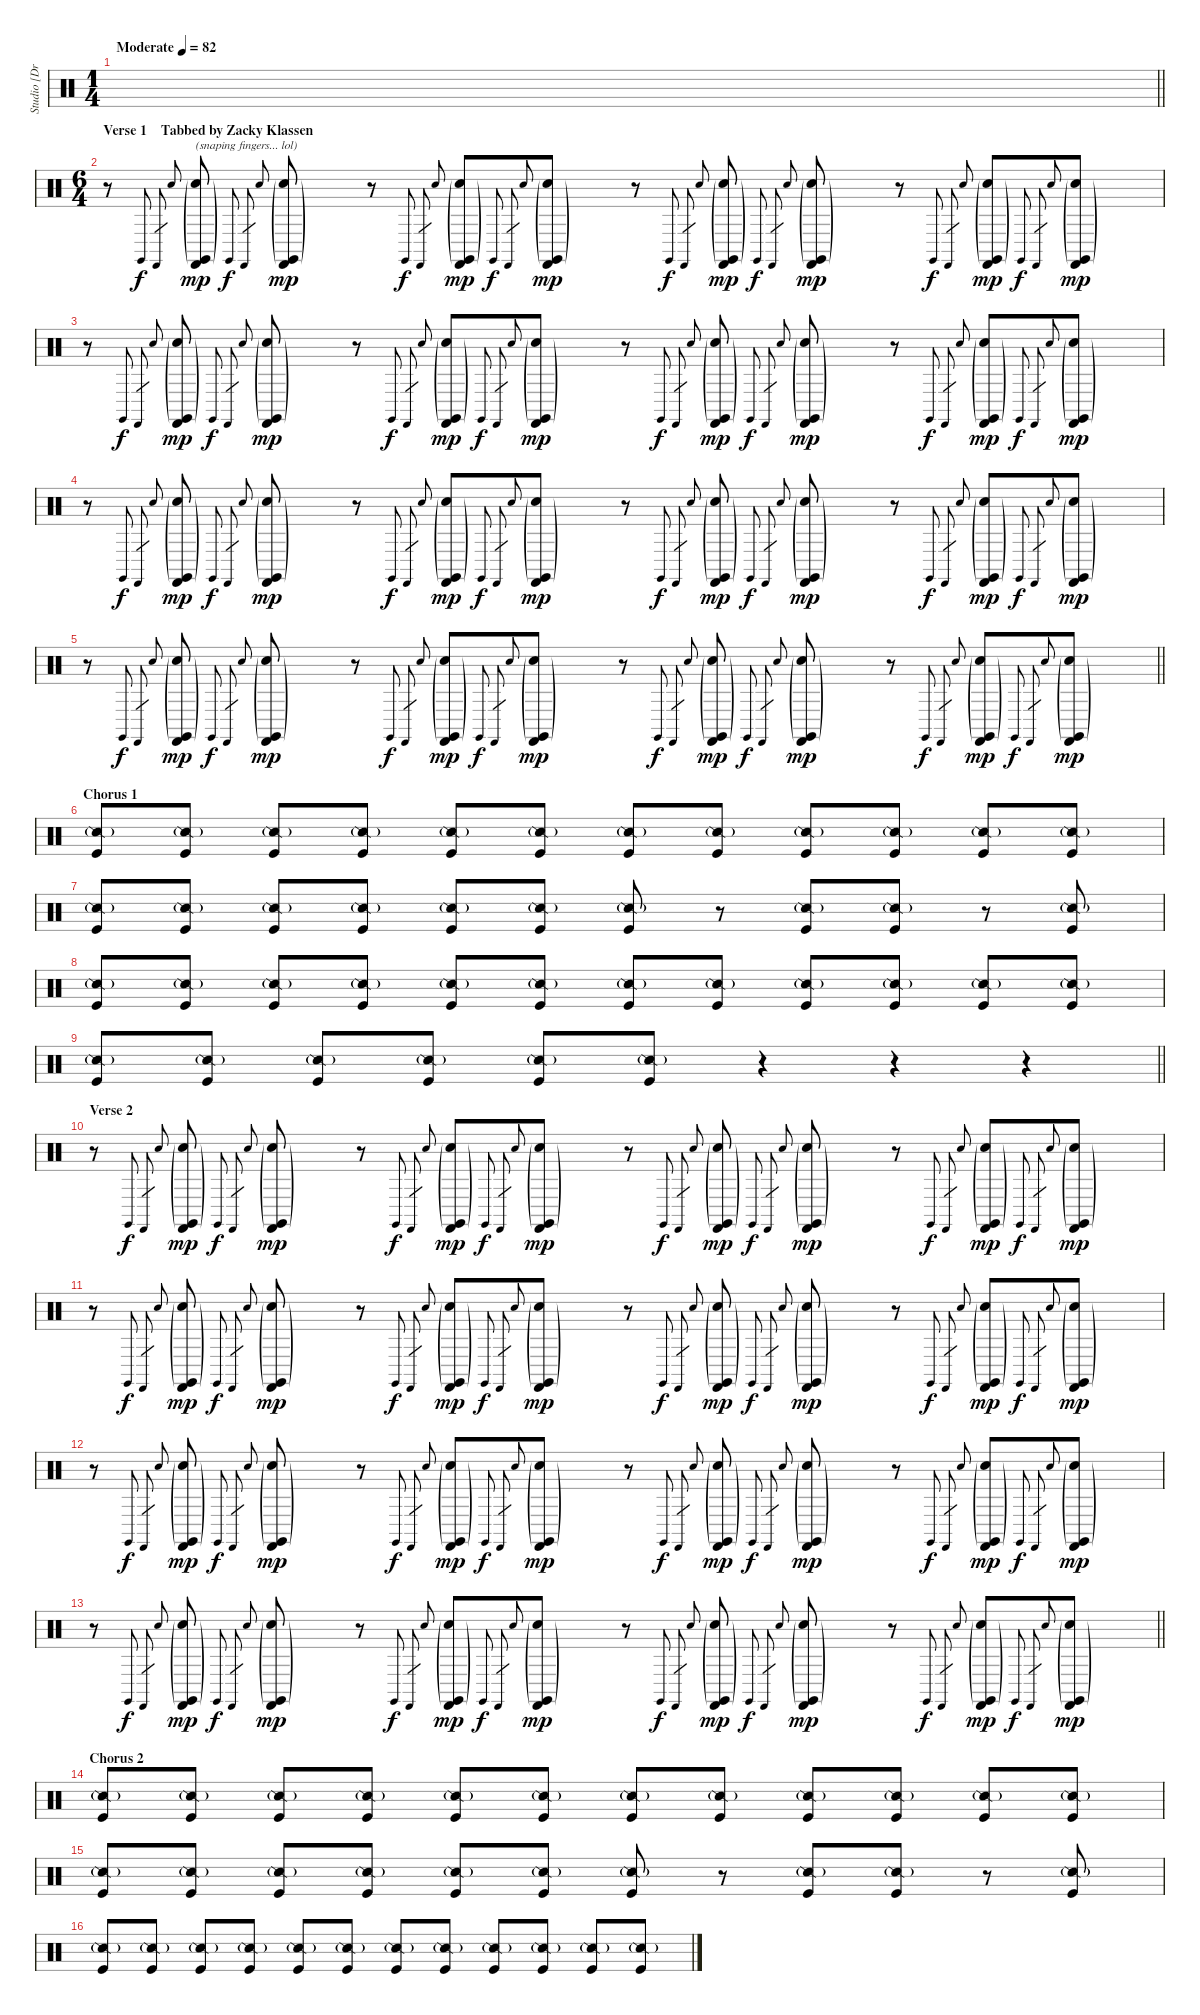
\track ("Studio [Drums FX]" "Studio [Dr") {instrument percussion}
\staff {score}
\articulation defaults
\ts (1 4)
\tempo (82 "Moderate")
\clef neutral
\barLineRight lightlight
\ks c
|
\ts (6 4)
\section ("" "Verse 1    Tabbed by Zacky Klassen")
r.8 "Claves (hit)".32{gr onbeat} "Castanets (hit)"{sl}.32{gr} "Hand Clap (hit)".32{gr onbeat} ("Claves (hit)"{g} "Castanets (hit)" "Hand Clap (hit)"{g}).8{txt "(snaping fingers... lol)" dy mp} "Claves (hit)".32{gr onbeat dy f} "Castanets (hit)"{sl}.32{gr} "Hand Clap (hit)".32{gr onbeat} ("Claves (hit)"{g} "Castanets (hit)" "Hand Clap (hit)"{g}).8{dy mp} r.8 "Claves (hit)".32{gr onbeat dy f} "Castanets (hit)"{sl}.32{gr} "Hand Clap (hit)".32{gr onbeat} ("Claves (hit)"{g} "Castanets (hit)" "Hand Clap (hit)"{g}).8{dy mp} "Claves (hit)".32{gr onbeat dy f} "Castanets (hit)"{sl}.32{gr} "Hand Clap (hit)".32{gr onbeat} ("Claves (hit)"{g} "Castanets (hit)" "Hand Clap (hit)"{g}).8{dy mp} r.8 "Claves (hit)".32{gr onbeat dy f} "Castanets (hit)"{sl}.32{gr} "Hand Clap (hit)".32{gr onbeat} ("Claves (hit)"{g} "Castanets (hit)" "Hand Clap (hit)"{g}).8{dy mp} "Claves (hit)".32{gr onbeat dy f} "Castanets (hit)"{sl}.32{gr} "Hand Clap (hit)".32{gr onbeat} ("Claves (hit)"{g} "Castanets (hit)" "Hand Clap (hit)"{g}).8{dy mp} r.8 "Claves (hit)".32{gr onbeat dy f} "Castanets (hit)"{sl}.32{gr} "Hand Clap (hit)".32{gr onbeat} ("Claves (hit)"{g} "Castanets (hit)" "Hand Clap (hit)"{g}).8{dy mp} "Claves (hit)".32{gr onbeat dy f} "Castanets (hit)"{sl}.32{gr} "Hand Clap (hit)".32{gr onbeat} ("Claves (hit)"{g} "Castanets (hit)" "Hand Clap (hit)"{g}).8{dy mp} |
r.8 "Claves (hit)".32{gr onbeat dy f} "Castanets (hit)"{sl}.32{gr} "Hand Clap (hit)".32{gr onbeat} ("Claves (hit)"{g} "Castanets (hit)" "Hand Clap (hit)"{g}).8{dy mp} "Claves (hit)".32{gr onbeat dy f} "Castanets (hit)"{sl}.32{gr} "Hand Clap (hit)".32{gr onbeat} ("Claves (hit)"{g} "Castanets (hit)" "Hand Clap (hit)"{g}).8{dy mp} r.8 "Claves (hit)".32{gr onbeat dy f} "Castanets (hit)"{sl}.32{gr} "Hand Clap (hit)".32{gr onbeat} ("Claves (hit)"{g} "Castanets (hit)" "Hand Clap (hit)"{g}).8{dy mp} "Claves (hit)".32{gr onbeat dy f} "Castanets (hit)"{sl}.32{gr} "Hand Clap (hit)".32{gr onbeat} ("Claves (hit)"{g} "Castanets (hit)" "Hand Clap (hit)"{g}).8{dy mp} r.8 "Claves (hit)".32{gr onbeat dy f} "Castanets (hit)"{sl}.32{gr} "Hand Clap (hit)".32{gr onbeat} ("Claves (hit)"{g} "Castanets (hit)" "Hand Clap (hit)"{g}).8{dy mp} "Claves (hit)".32{gr onbeat dy f} "Castanets (hit)"{sl}.32{gr} "Hand Clap (hit)".32{gr onbeat} ("Claves (hit)"{g} "Castanets (hit)" "Hand Clap (hit)"{g}).8{dy mp} r.8 "Claves (hit)".32{gr onbeat dy f} "Castanets (hit)"{sl}.32{gr} "Hand Clap (hit)".32{gr onbeat} ("Claves (hit)"{g} "Castanets (hit)" "Hand Clap (hit)"{g}).8{dy mp} "Claves (hit)".32{gr onbeat dy f} "Castanets (hit)"{sl}.32{gr} "Hand Clap (hit)".32{gr onbeat} ("Claves (hit)"{g} "Castanets (hit)" "Hand Clap (hit)"{g}).8{dy mp} |
r.8 "Claves (hit)".32{gr onbeat dy f} "Castanets (hit)"{sl}.32{gr} "Hand Clap (hit)".32{gr onbeat} ("Claves (hit)"{g} "Castanets (hit)" "Hand Clap (hit)"{g}).8{dy mp} "Claves (hit)".32{gr onbeat dy f} "Castanets (hit)"{sl}.32{gr} "Hand Clap (hit)".32{gr onbeat} ("Claves (hit)"{g} "Castanets (hit)" "Hand Clap (hit)"{g}).8{dy mp} r.8 "Claves (hit)".32{gr onbeat dy f} "Castanets (hit)"{sl}.32{gr} "Hand Clap (hit)".32{gr onbeat} ("Claves (hit)"{g} "Castanets (hit)" "Hand Clap (hit)"{g}).8{dy mp} "Claves (hit)".32{gr onbeat dy f} "Castanets (hit)"{sl}.32{gr} "Hand Clap (hit)".32{gr onbeat} ("Claves (hit)"{g} "Castanets (hit)" "Hand Clap (hit)"{g}).8{dy mp} r.8 "Claves (hit)".32{gr onbeat dy f} "Castanets (hit)"{sl}.32{gr} "Hand Clap (hit)".32{gr onbeat} ("Claves (hit)"{g} "Castanets (hit)" "Hand Clap (hit)"{g}).8{dy mp} "Claves (hit)".32{gr onbeat dy f} "Castanets (hit)"{sl}.32{gr} "Hand Clap (hit)".32{gr onbeat} ("Claves (hit)"{g} "Castanets (hit)" "Hand Clap (hit)"{g}).8{dy mp} r.8 "Claves (hit)".32{gr onbeat dy f} "Castanets (hit)"{sl}.32{gr} "Hand Clap (hit)".32{gr onbeat} ("Claves (hit)"{g} "Castanets (hit)" "Hand Clap (hit)"{g}).8{dy mp} "Claves (hit)".32{gr onbeat dy f} "Castanets (hit)"{sl}.32{gr} "Hand Clap (hit)".32{gr onbeat} ("Claves (hit)"{g} "Castanets (hit)" "Hand Clap (hit)"{g}).8{dy mp} |
\barLineRight lightlight
r.8 "Claves (hit)".32{gr onbeat dy f} "Castanets (hit)"{sl}.32{gr} "Hand Clap (hit)".32{gr onbeat} ("Claves (hit)"{g} "Castanets (hit)" "Hand Clap (hit)"{g}).8{dy mp} "Claves (hit)".32{gr onbeat dy f} "Castanets (hit)"{sl}.32{gr} "Hand Clap (hit)".32{gr onbeat} ("Claves (hit)"{g} "Castanets (hit)" "Hand Clap (hit)"{g}).8{dy mp} r.8 "Claves (hit)".32{gr onbeat dy f} "Castanets (hit)"{sl}.32{gr} "Hand Clap (hit)".32{gr onbeat} ("Claves (hit)"{g} "Castanets (hit)" "Hand Clap (hit)"{g}).8{dy mp} "Claves (hit)".32{gr onbeat dy f} "Castanets (hit)"{sl}.32{gr} "Hand Clap (hit)".32{gr onbeat} ("Claves (hit)"{g} "Castanets (hit)" "Hand Clap (hit)"{g}).8{dy mp} r.8 "Claves (hit)".32{gr onbeat dy f} "Castanets (hit)"{sl}.32{gr} "Hand Clap (hit)".32{gr onbeat} ("Claves (hit)"{g} "Castanets (hit)" "Hand Clap (hit)"{g}).8{dy mp} "Claves (hit)".32{gr onbeat dy f} "Castanets (hit)"{sl}.32{gr} "Hand Clap (hit)".32{gr onbeat} ("Claves (hit)"{g} "Castanets (hit)" "Hand Clap (hit)"{g}).8{dy mp} r.8 "Claves (hit)".32{gr onbeat dy f} "Castanets (hit)"{sl}.32{gr} "Hand Clap (hit)".32{gr onbeat} ("Claves (hit)"{g} "Castanets (hit)" "Hand Clap (hit)"{g}).8{dy mp} "Claves (hit)".32{gr onbeat dy f} "Castanets (hit)"{sl}.32{gr} "Hand Clap (hit)".32{gr onbeat} ("Claves (hit)"{g} "Castanets (hit)" "Hand Clap (hit)"{g}).8{dy mp} |
\section ("" "Chorus 1")
("Snare (side stick) 2"{g} "Kick (hit)").8{volume 12} ("Snare (side stick) 2"{g} "Kick (hit)").8 ("Snare (side stick) 2"{g} "Kick (hit)").8 ("Snare (side stick) 2"{g} "Kick (hit)").8 ("Snare (side stick) 2"{g} "Kick (hit)").8 ("Snare (side stick) 2"{g} "Kick (hit)").8 ("Snare (side stick) 2"{g} "Kick (hit)").8 ("Snare (side stick) 2"{g} "Kick (hit)").8 ("Snare (side stick) 2"{g} "Kick (hit)").8 ("Snare (side stick) 2"{g} "Kick (hit)").8 ("Snare (side stick) 2"{g} "Kick (hit)").8 ("Snare (side stick) 2"{g} "Kick (hit)").8 |
("Snare (side stick) 2"{g} "Kick (hit)").8 ("Snare (side stick) 2"{g} "Kick (hit)").8 ("Snare (side stick) 2"{g} "Kick (hit)").8 ("Snare (side stick) 2"{g} "Kick (hit)").8 ("Snare (side stick) 2"{g} "Kick (hit)").8 ("Snare (side stick) 2"{g} "Kick (hit)").8 ("Snare (side stick) 2"{g} "Kick (hit)").8 r.8 ("Snare (side stick) 2"{g} "Kick (hit)").8 ("Snare (side stick) 2"{g} "Kick (hit)").8 r.8 ("Snare (side stick) 2"{g} "Kick (hit)").8 |
("Snare (side stick) 2"{g} "Kick (hit)").8 ("Snare (side stick) 2"{g} "Kick (hit)").8 ("Snare (side stick) 2"{g} "Kick (hit)").8 ("Snare (side stick) 2"{g} "Kick (hit)").8 ("Snare (side stick) 2"{g} "Kick (hit)").8 ("Snare (side stick) 2"{g} "Kick (hit)").8 ("Snare (side stick) 2"{g} "Kick (hit)").8 ("Snare (side stick) 2"{g} "Kick (hit)").8 ("Snare (side stick) 2"{g} "Kick (hit)").8 ("Snare (side stick) 2"{g} "Kick (hit)").8 ("Snare (side stick) 2"{g} "Kick (hit)").8 ("Snare (side stick) 2"{g} "Kick (hit)").8 |
\barLineRight lightlight
("Snare (side stick) 2"{g} "Kick (hit)").8 ("Snare (side stick) 2"{g} "Kick (hit)").8 ("Snare (side stick) 2"{g} "Kick (hit)").8 ("Snare (side stick) 2"{g} "Kick (hit)").8 ("Snare (side stick) 2"{g} "Kick (hit)").8 ("Snare (side stick) 2"{g} "Kick (hit)").8 r.4 r.4 r.4 |
\section ("" "Verse 2")
r.8{volume 8 balance 8} "Claves (hit)".32{gr onbeat dy f} "Castanets (hit)"{sl}.32{gr} "Hand Clap (hit)".32{gr onbeat} ("Claves (hit)"{g} "Castanets (hit)" "Hand Clap (hit)"{g}).8{dy mp} "Claves (hit)".32{gr onbeat dy f} "Castanets (hit)"{sl}.32{gr} "Hand Clap (hit)".32{gr onbeat} ("Claves (hit)"{g} "Castanets (hit)" "Hand Clap (hit)"{g}).8{dy mp} r.8 "Claves (hit)".32{gr onbeat dy f} "Castanets (hit)"{sl}.32{gr} "Hand Clap (hit)".32{gr onbeat} ("Claves (hit)"{g} "Castanets (hit)" "Hand Clap (hit)"{g}).8{dy mp} "Claves (hit)".32{gr onbeat dy f} "Castanets (hit)"{sl}.32{gr} "Hand Clap (hit)".32{gr onbeat} ("Claves (hit)"{g} "Castanets (hit)" "Hand Clap (hit)"{g}).8{dy mp} r.8 "Claves (hit)".32{gr onbeat dy f} "Castanets (hit)"{sl}.32{gr} "Hand Clap (hit)".32{gr onbeat} ("Claves (hit)"{g} "Castanets (hit)" "Hand Clap (hit)"{g}).8{dy mp} "Claves (hit)".32{gr onbeat dy f} "Castanets (hit)"{sl}.32{gr} "Hand Clap (hit)".32{gr onbeat} ("Claves (hit)"{g} "Castanets (hit)" "Hand Clap (hit)"{g}).8{dy mp} r.8 "Claves (hit)".32{gr onbeat dy f} "Castanets (hit)"{sl}.32{gr} "Hand Clap (hit)".32{gr onbeat} ("Claves (hit)"{g} "Castanets (hit)" "Hand Clap (hit)"{g}).8{dy mp} "Claves (hit)".32{gr onbeat dy f} "Castanets (hit)"{sl}.32{gr} "Hand Clap (hit)".32{gr onbeat} ("Claves (hit)"{g} "Castanets (hit)" "Hand Clap (hit)"{g}).8{dy mp} |
r.8 "Claves (hit)".32{gr onbeat dy f} "Castanets (hit)"{sl}.32{gr} "Hand Clap (hit)".32{gr onbeat} ("Claves (hit)"{g} "Castanets (hit)" "Hand Clap (hit)"{g}).8{dy mp} "Claves (hit)".32{gr onbeat dy f} "Castanets (hit)"{sl}.32{gr} "Hand Clap (hit)".32{gr onbeat} ("Claves (hit)"{g} "Castanets (hit)" "Hand Clap (hit)"{g}).8{dy mp} r.8 "Claves (hit)".32{gr onbeat dy f} "Castanets (hit)"{sl}.32{gr} "Hand Clap (hit)".32{gr onbeat} ("Claves (hit)"{g} "Castanets (hit)" "Hand Clap (hit)"{g}).8{dy mp} "Claves (hit)".32{gr onbeat dy f} "Castanets (hit)"{sl}.32{gr} "Hand Clap (hit)".32{gr onbeat} ("Claves (hit)"{g} "Castanets (hit)" "Hand Clap (hit)"{g}).8{dy mp} r.8 "Claves (hit)".32{gr onbeat dy f} "Castanets (hit)"{sl}.32{gr} "Hand Clap (hit)".32{gr onbeat} ("Claves (hit)"{g} "Castanets (hit)" "Hand Clap (hit)"{g}).8{dy mp} "Claves (hit)".32{gr onbeat dy f} "Castanets (hit)"{sl}.32{gr} "Hand Clap (hit)".32{gr onbeat} ("Claves (hit)"{g} "Castanets (hit)" "Hand Clap (hit)"{g}).8{dy mp} r.8 "Claves (hit)".32{gr onbeat dy f} "Castanets (hit)"{sl}.32{gr} "Hand Clap (hit)".32{gr onbeat} ("Claves (hit)"{g} "Castanets (hit)" "Hand Clap (hit)"{g}).8{dy mp} "Claves (hit)".32{gr onbeat dy f} "Castanets (hit)"{sl}.32{gr} "Hand Clap (hit)".32{gr onbeat} ("Claves (hit)"{g} "Castanets (hit)" "Hand Clap (hit)"{g}).8{dy mp} |
r.8 "Claves (hit)".32{gr onbeat dy f} "Castanets (hit)"{sl}.32{gr} "Hand Clap (hit)".32{gr onbeat} ("Claves (hit)"{g} "Castanets (hit)" "Hand Clap (hit)"{g}).8{dy mp} "Claves (hit)".32{gr onbeat dy f} "Castanets (hit)"{sl}.32{gr} "Hand Clap (hit)".32{gr onbeat} ("Claves (hit)"{g} "Castanets (hit)" "Hand Clap (hit)"{g}).8{dy mp} r.8 "Claves (hit)".32{gr onbeat dy f} "Castanets (hit)"{sl}.32{gr} "Hand Clap (hit)".32{gr onbeat} ("Claves (hit)"{g} "Castanets (hit)" "Hand Clap (hit)"{g}).8{dy mp} "Claves (hit)".32{gr onbeat dy f} "Castanets (hit)"{sl}.32{gr} "Hand Clap (hit)".32{gr onbeat} ("Claves (hit)"{g} "Castanets (hit)" "Hand Clap (hit)"{g}).8{dy mp} r.8 "Claves (hit)".32{gr onbeat dy f} "Castanets (hit)"{sl}.32{gr} "Hand Clap (hit)".32{gr onbeat} ("Claves (hit)"{g} "Castanets (hit)" "Hand Clap (hit)"{g}).8{dy mp} "Claves (hit)".32{gr onbeat dy f} "Castanets (hit)"{sl}.32{gr} "Hand Clap (hit)".32{gr onbeat} ("Claves (hit)"{g} "Castanets (hit)" "Hand Clap (hit)"{g}).8{dy mp} r.8 "Claves (hit)".32{gr onbeat dy f} "Castanets (hit)"{sl}.32{gr} "Hand Clap (hit)".32{gr onbeat} ("Claves (hit)"{g} "Castanets (hit)" "Hand Clap (hit)"{g}).8{dy mp} "Claves (hit)".32{gr onbeat dy f} "Castanets (hit)"{sl}.32{gr} "Hand Clap (hit)".32{gr onbeat} ("Claves (hit)"{g} "Castanets (hit)" "Hand Clap (hit)"{g}).8{dy mp} |
\barLineRight lightlight
r.8 "Claves (hit)".32{gr onbeat dy f} "Castanets (hit)"{sl}.32{gr} "Hand Clap (hit)".32{gr onbeat} ("Claves (hit)"{g} "Castanets (hit)" "Hand Clap (hit)"{g}).8{dy mp} "Claves (hit)".32{gr onbeat dy f} "Castanets (hit)"{sl}.32{gr} "Hand Clap (hit)".32{gr onbeat} ("Claves (hit)"{g} "Castanets (hit)" "Hand Clap (hit)"{g}).8{dy mp} r.8 "Claves (hit)".32{gr onbeat dy f} "Castanets (hit)"{sl}.32{gr} "Hand Clap (hit)".32{gr onbeat} ("Claves (hit)"{g} "Castanets (hit)" "Hand Clap (hit)"{g}).8{dy mp} "Claves (hit)".32{gr onbeat dy f} "Castanets (hit)"{sl}.32{gr} "Hand Clap (hit)".32{gr onbeat} ("Claves (hit)"{g} "Castanets (hit)" "Hand Clap (hit)"{g}).8{dy mp} r.8 "Claves (hit)".32{gr onbeat dy f} "Castanets (hit)"{sl}.32{gr} "Hand Clap (hit)".32{gr onbeat} ("Claves (hit)"{g} "Castanets (hit)" "Hand Clap (hit)"{g}).8{dy mp} "Claves (hit)".32{gr onbeat dy f} "Castanets (hit)"{sl}.32{gr} "Hand Clap (hit)".32{gr onbeat} ("Claves (hit)"{g} "Castanets (hit)" "Hand Clap (hit)"{g}).8{dy mp} r.8 "Claves (hit)".32{gr onbeat dy f} "Castanets (hit)"{sl}.32{gr} "Hand Clap (hit)".32{gr onbeat} ("Claves (hit)"{g} "Castanets (hit)" "Hand Clap (hit)"{g}).8{dy mp} "Claves (hit)".32{gr onbeat dy f} "Castanets (hit)"{sl}.32{gr} "Hand Clap (hit)".32{gr onbeat} ("Claves (hit)"{g} "Castanets (hit)" "Hand Clap (hit)"{g}).8{dy mp} |
\section ("" "Chorus 2")
("Snare (side stick) 2"{g} "Kick (hit)").8{volume 12} ("Snare (side stick) 2"{g} "Kick (hit)").8 ("Snare (side stick) 2"{g} "Kick (hit)").8 ("Snare (side stick) 2"{g} "Kick (hit)").8 ("Snare (side stick) 2"{g} "Kick (hit)").8 ("Snare (side stick) 2"{g} "Kick (hit)").8 ("Snare (side stick) 2"{g} "Kick (hit)").8 ("Snare (side stick) 2"{g} "Kick (hit)").8 ("Snare (side stick) 2"{g} "Kick (hit)").8 ("Snare (side stick) 2"{g} "Kick (hit)").8 ("Snare (side stick) 2"{g} "Kick (hit)").8 ("Snare (side stick) 2"{g} "Kick (hit)").8 |
("Snare (side stick) 2"{g} "Kick (hit)").8 ("Snare (side stick) 2"{g} "Kick (hit)").8 ("Snare (side stick) 2"{g} "Kick (hit)").8 ("Snare (side stick) 2"{g} "Kick (hit)").8 ("Snare (side stick) 2"{g} "Kick (hit)").8 ("Snare (side stick) 2"{g} "Kick (hit)").8 ("Snare (side stick) 2"{g} "Kick (hit)").8 r.8 ("Snare (side stick) 2"{g} "Kick (hit)").8 ("Snare (side stick) 2"{g} "Kick (hit)").8 r.8 ("Snare (side stick) 2"{g} "Kick (hit)").8 |
("Snare (side stick) 2"{g} "Kick (hit)").8 ("Snare (side stick) 2"{g} "Kick (hit)").8 ("Snare (side stick) 2"{g} "Kick (hit)").8 ("Snare (side stick) 2"{g} "Kick (hit)").8 ("Snare (side stick) 2"{g} "Kick (hit)").8 ("Snare (side stick) 2"{g} "Kick (hit)").8 ("Snare (side stick) 2"{g} "Kick (hit)").8 ("Snare (side stick) 2"{g} "Kick (hit)").8 ("Snare (side stick) 2"{g} "Kick (hit)").8 ("Snare (side stick) 2"{g} "Kick (hit)").8 ("Snare (side stick) 2"{g} "Kick (hit)").8 ("Snare (side stick) 2"{g} "Kick (hit)").8
